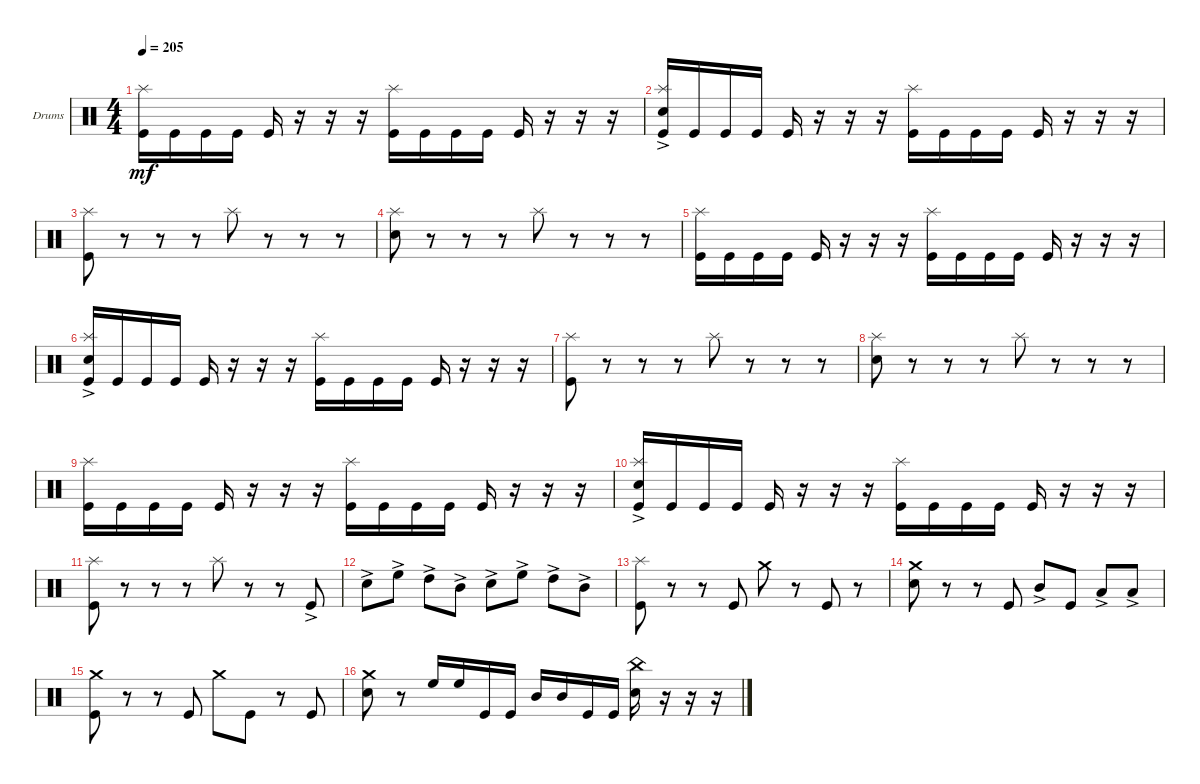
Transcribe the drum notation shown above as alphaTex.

\defaultSystemsLayout 4
\bracketExtendMode groupsimilarinstruments
\firstSystemTrackNameOrientation horizontal
\otherSystemsTrackNameOrientation horizontal
\track ("Drumkit" "Drums") {instrument percussion}
\staff {score}
\articulation defaults
\ts (4 4)
\tempo 205
\clef neutral
\ks c
("Kick (hit)" "Splash (hit)").16{dy mf} "Kick (hit)".16 "Kick (hit)".16 "Kick (hit)".16 "Kick (hit)".16 r.16 r.16 r.16 ("Kick (hit)" "Splash (hit)").16 "Kick (hit)".16 "Kick (hit)".16 "Kick (hit)".16 "Kick (hit)".16 r.16 r.16 r.16 |
("Kick (hit)" "Splash (hit)" "Snare (hit) 2"{ac}).16 "Kick (hit)".16 "Kick (hit)".16 "Kick (hit)".16 "Kick (hit)".16 r.16 r.16 r.16 ("Kick (hit)" "Splash (hit)").16 "Kick (hit)".16 "Kick (hit)".16 "Kick (hit)".16 "Kick (hit)".16 r.16 r.16 r.16 |
("Kick (hit)" "Splash (hit)").8 r.8 r.8 r.8 "Splash (hit)".8 r.8 r.8 r.8 |
("Snare (hit) 2" "Splash (hit)").8 r.8 r.8 r.8 "Splash (hit)".8 r.8 r.8 r.8 |
("Kick (hit)" "Splash (hit)").16 "Kick (hit)".16 "Kick (hit)".16 "Kick (hit)".16 "Kick (hit)".16 r.16 r.16 r.16 ("Kick (hit)" "Splash (hit)").16 "Kick (hit)".16 "Kick (hit)".16 "Kick (hit)".16 "Kick (hit)".16 r.16 r.16 r.16 |
("Kick (hit)" "Splash (hit)" "Snare (hit) 2"{ac}).16 "Kick (hit)".16 "Kick (hit)".16 "Kick (hit)".16 "Kick (hit)".16 r.16 r.16 r.16 ("Kick (hit)" "Splash (hit)").16 "Kick (hit)".16 "Kick (hit)".16 "Kick (hit)".16 "Kick (hit)".16 r.16 r.16 r.16 |
("Kick (hit)" "Splash (hit)").8 r.8 r.8 r.8 "Splash (hit)".8 r.8 r.8 r.8 |
("Snare (hit) 2" "Splash (hit)").8 r.8 r.8 r.8 "Splash (hit)".8 r.8 r.8 r.8 |
("Kick (hit)" "Splash (hit)").16 "Kick (hit)".16 "Kick (hit)".16 "Kick (hit)".16 "Kick (hit)".16 r.16 r.16 r.16 ("Kick (hit)" "Splash (hit)").16 "Kick (hit)".16 "Kick (hit)".16 "Kick (hit)".16 "Kick (hit)".16 r.16 r.16 r.16 |
("Kick (hit)" "Splash (hit)" "Snare (hit) 2"{ac}).16 "Kick (hit)".16 "Kick (hit)".16 "Kick (hit)".16 "Kick (hit)".16 r.16 r.16 r.16 ("Kick (hit)" "Splash (hit)").16 "Kick (hit)".16 "Kick (hit)".16 "Kick (hit)".16 "Kick (hit)".16 r.16 r.16 r.16 |
("Kick (hit)" "Splash (hit)").8 r.8 r.8 r.8 "Splash (hit)".8 r.8 r.8 "Kick (hit)"{ac}.8 |
"Snare (hit) 2"{ac}.8 "High Floor Tom (hit)"{ac}.8 "High Tom (hit)"{ac}.8 "Mid Tom (hit)"{ac}.8 "Snare (hit) 2"{ac}.8 "High Floor Tom (hit)"{ac}.8 "High Tom (hit)"{ac}.8 "Mid Tom (hit)"{ac}.8 |
("Kick (hit)" "Splash (hit)").8 r.8 r.8 "Kick (hit)".8 "Crash medium (hit)".8 r.8 "Kick (hit)".8 r.8 |
("Snare (hit) 2" "Crash medium (hit)").8 r.8 r.8 "Kick (hit)".8 "Mid Tom (hit)"{ac}.8 "Kick (hit)".8 "Low Tom (hit)"{ac}.8 "Low Tom (hit)"{ac}.8 |
("Kick (hit)" "Crash medium (hit)").8 r.8 r.8 "Kick (hit)".8 "Crash medium (hit)".8 "Kick (hit)".8 r.8 "Kick (hit)".8 |
("Snare (hit) 2" "Crash medium (hit)").8 r.8 "High Floor Tom (hit)".16 "High Floor Tom (hit)".16 "Kick (hit)".16 "Kick (hit)".16 "Mid Tom (hit)".16 "Mid Tom (hit)".16 "Kick (hit)".16 "Kick (hit)".16 ("Snare (hit) 2" "China (hit)").16 r.16 r.16 r.16
